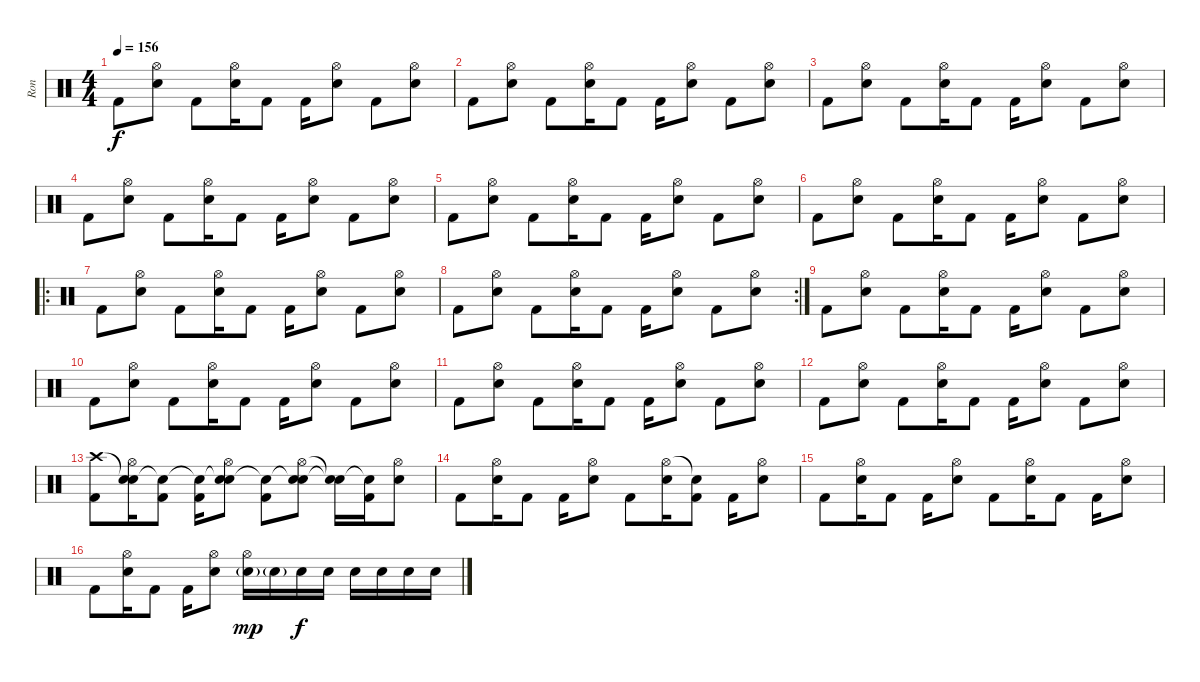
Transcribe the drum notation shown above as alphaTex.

\track ("Ron" "Ron") {instrument percussion}
\staff {score}
\articulation defaults
\ts (4 4)
\tempo 156
\clef neutral
\ks c "Kick (hit) 2".8{dy f}
("Hi-Hat (open)" "Electric Snare (hit)").8 "Kick (hit) 2".8 ("Hi-Hat (open)" "Electric Snare (hit)").16 "Kick (hit) 2".8 "Kick (hit) 2".16 ("Hi-Hat (open)" "Electric Snare (hit)").8 "Kick (hit) 2".8 ("Hi-Hat (open)" "Electric Snare (hit)").8 |
"Kick (hit) 2".8 ("Hi-Hat (open)" "Electric Snare (hit)").8 "Kick (hit) 2".8 ("Hi-Hat (open)" "Electric Snare (hit)").16 "Kick (hit) 2".8 "Kick (hit) 2".16 ("Hi-Hat (open)" "Electric Snare (hit)").8 "Kick (hit) 2".8 ("Hi-Hat (open)" "Electric Snare (hit)").8 |
"Kick (hit) 2".8 ("Hi-Hat (open)" "Electric Snare (hit)").8 "Kick (hit) 2".8 ("Hi-Hat (open)" "Electric Snare (hit)").16 "Kick (hit) 2".8 "Kick (hit) 2".16 ("Hi-Hat (open)" "Electric Snare (hit)").8 "Kick (hit) 2".8 ("Hi-Hat (open)" "Electric Snare (hit)").8 |
"Kick (hit) 2".8 ("Hi-Hat (open)" "Electric Snare (hit)").8 "Kick (hit) 2".8 ("Hi-Hat (open)" "Electric Snare (hit)").16 "Kick (hit) 2".8 "Kick (hit) 2".16 ("Hi-Hat (open)" "Electric Snare (hit)").8 "Kick (hit) 2".8 ("Hi-Hat (open)" "Electric Snare (hit)").8 |
"Kick (hit) 2".8 ("Hi-Hat (open)" "Electric Snare (hit)").8 "Kick (hit) 2".8 ("Hi-Hat (open)" "Electric Snare (hit)").16 "Kick (hit) 2".8 "Kick (hit) 2".16 ("Hi-Hat (open)" "Electric Snare (hit)").8 "Kick (hit) 2".8 ("Hi-Hat (open)" "Electric Snare (hit)").8 |
"Kick (hit) 2".8 ("Hi-Hat (open)" "Electric Snare (hit)").8 "Kick (hit) 2".8 ("Hi-Hat (open)" "Electric Snare (hit)").16 "Kick (hit) 2".8 "Kick (hit) 2".16 ("Hi-Hat (open)" "Electric Snare (hit)").8 "Kick (hit) 2".8 ("Hi-Hat (open)" "Electric Snare (hit)").8 |
\ro "Kick (hit) 2".8
("Hi-Hat (open)" "Electric Snare (hit)").8 "Kick (hit) 2".8 ("Hi-Hat (open)" "Electric Snare (hit)").16 "Kick (hit) 2".8 "Kick (hit) 2".16 ("Hi-Hat (open)" "Electric Snare (hit)").8 "Kick (hit) 2".8 ("Hi-Hat (open)" "Electric Snare (hit)").8 |
\rc 2 "Kick (hit) 2".8
("Hi-Hat (open)" "Electric Snare (hit)").8 "Kick (hit) 2".8 ("Hi-Hat (open)" "Electric Snare (hit)").16 "Kick (hit) 2".8 "Kick (hit) 2".16 ("Hi-Hat (open)" "Electric Snare (hit)").8 "Kick (hit) 2".8 ("Hi-Hat (open)" "Electric Snare (hit)").8 |
"Kick (hit) 2".8 ("Hi-Hat (open)" "Electric Snare (hit)").8 "Kick (hit) 2".8 ("Hi-Hat (open)" "Electric Snare (hit)").16 "Kick (hit) 2".8 "Kick (hit) 2".16 ("Hi-Hat (open)" "Electric Snare (hit)").8 "Kick (hit) 2".8 ("Hi-Hat (open)" "Electric Snare (hit)").8 |
"Kick (hit) 2".8 ("Hi-Hat (open)" "Electric Snare (hit)").8 "Kick (hit) 2".8 ("Hi-Hat (open)" "Electric Snare (hit)").16 "Kick (hit) 2".8 "Kick (hit) 2".16 ("Hi-Hat (open)" "Electric Snare (hit)").8 "Kick (hit) 2".8 ("Hi-Hat (open)" "Electric Snare (hit)").8 |
"Kick (hit) 2".8 ("Hi-Hat (open)" "Electric Snare (hit)").8 "Kick (hit) 2".8 ("Hi-Hat (open)" "Electric Snare (hit)").16 "Kick (hit) 2".8 "Kick (hit) 2".16 ("Hi-Hat (open)" "Electric Snare (hit)").8 "Kick (hit) 2".8 ("Hi-Hat (open)" "Electric Snare (hit)").8 |
"Kick (hit) 2".8 ("Hi-Hat (open)" "Electric Snare (hit)").8 "Kick (hit) 2".8 ("Hi-Hat (open)" "Electric Snare (hit)").16 "Kick (hit) 2".8 "Kick (hit) 2".16 ("Hi-Hat (open)" "Electric Snare (hit)").8 "Kick (hit) 2".8 ("Hi-Hat (open)" "Electric Snare (hit)").8 |
("Crash high (hit)" "Kick (hit) 2").8 ("Snare (hit)"{t} "Hi-Hat (open)" "Electric Snare (hit)").16 ("Snare (hit)"{t} "Kick (hit) 2").8 ("Snare (hit)"{t} "Kick (hit) 2").16 ("Snare (hit)"{t} "Hi-Hat (open)" "Electric Snare (hit)").8 ("Snare (hit)"{t} "Kick (hit) 2").8 ("Snare (hit)"{t} "Hi-Hat (open)" "Electric Snare (hit)").8 ("Snare (hit)"{t} "Snare (hit)"{t}).16 ("Snare (hit)"{t} "Kick (hit) 2").16 ("Hi-Hat (open)" "Electric Snare (hit)").8 |
"Kick (hit) 2".8 ("Hi-Hat (open)" "Electric Snare (hit)").16 "Kick (hit) 2".8 "Kick (hit) 2".16 ("Hi-Hat (open)" "Electric Snare (hit)").8 "Kick (hit) 2".8 ("Hi-Hat (open)" "Electric Snare (hit)").16 ("Snare (hit)"{t} "Kick (hit) 2").8 "Kick (hit) 2".16 ("Hi-Hat (open)" "Electric Snare (hit)").8 |
"Kick (hit) 2".8 ("Hi-Hat (open)" "Electric Snare (hit)").16 "Kick (hit) 2".8 "Kick (hit) 2".16 ("Hi-Hat (open)" "Electric Snare (hit)").8 "Kick (hit) 2".8 ("Hi-Hat (open)" "Electric Snare (hit)").16 "Kick (hit) 2".8 "Kick (hit) 2".16 ("Hi-Hat (open)" "Electric Snare (hit)").8 |
"Kick (hit) 2".8 ("Hi-Hat (open)" "Electric Snare (hit)").16 "Kick (hit) 2".8 "Kick (hit) 2".16 ("Hi-Hat (open)" "Electric Snare (hit)").8 ("Hi-Hat (open)" "Electric Snare (hit)"{g}).16{dy mp} "Electric Snare (hit)"{g}.16 "Electric Snare (hit)".16{dy f} "Electric Snare (hit)".16 "Electric Snare (hit)".16 "Electric Snare (hit)".16 "Electric Snare (hit)".16 "Electric Snare (hit)".16
